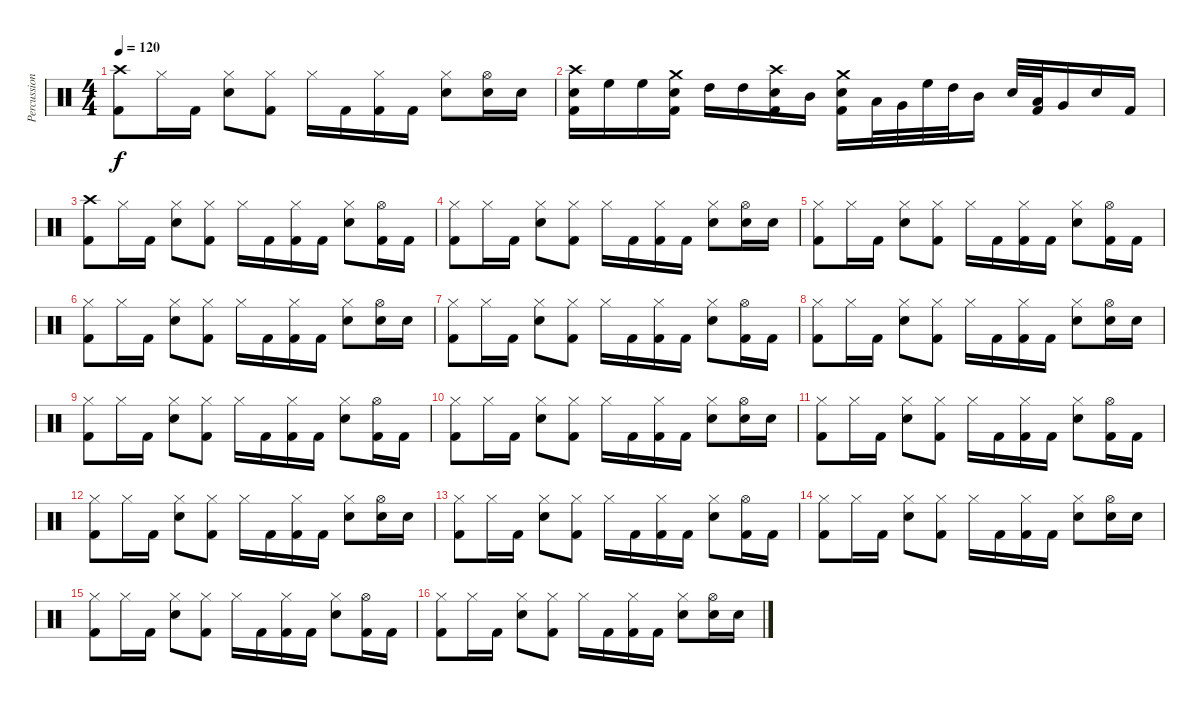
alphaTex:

\track ("Percussion" "Percussion") {instrument percussion}
\staff {score}
\articulation defaults
\ts (4 4)
\tempo 120
\clef neutral
\ks c
("Crash high (hit)" "Kick (hit) 2").8{dy f} "Hi-Hat (closed)".16 "Kick (hit) 2".16 ("Hi-Hat (closed)" "Snare (hit) 2").8 ("Hi-Hat (closed)" "Kick (hit) 2").8 "Hi-Hat (closed)".16 "Kick (hit) 2".16 ("Hi-Hat (closed)" "Kick (hit) 2").16 "Kick (hit) 2".16 ("Hi-Hat (closed)" "Snare (hit) 2").8 ("Hi-Hat (open)" "Snare (hit) 2").16 "Snare (hit) 2".16 |
("Crash high (hit)" "Electric Snare (hit)" "Kick (hit) 2").16 "High Floor Tom (hit)".16 "High Floor Tom (hit)".16 ("Crash medium (hit)" "Electric Snare (hit)" "Kick (hit) 2").16 "High Tom (hit)".16 "High Tom (hit)".16 ("Crash high (hit)" "Electric Snare (hit)" "Kick (hit) 2").16 "Mid Tom (hit)".16 ("Crash medium (hit)" "Electric Snare (hit)" "Kick (hit) 2").16 "Low Tom (hit)".32 "Very Low Tom (hit)".32 "High Floor Tom (hit)".32 "High Tom (hit)".32 "Mid Tom (hit)".16 "Electric Snare (hit)".32 ("Low Tom (hit)" "Kick (hit) 2").32 "Very Low Tom (hit)".16 "Electric Snare (hit)".16 "Kick (hit) 2".16 |
("Crash high (hit)" "Kick (hit) 2").8 "Hi-Hat (closed)".16 "Kick (hit) 2".16 ("Hi-Hat (closed)" "Snare (hit) 2").8 ("Hi-Hat (closed)" "Kick (hit) 2").8 "Hi-Hat (closed)".16 "Kick (hit) 2".16 ("Hi-Hat (closed)" "Kick (hit) 2").16 "Kick (hit) 2".16 ("Hi-Hat (closed)" "Snare (hit) 2").8 ("Hi-Hat (open)" "Kick (hit) 2").16 "Kick (hit) 2".16 |
("Hi-Hat (closed)" "Kick (hit) 2").8 "Hi-Hat (closed)".16 "Kick (hit) 2".16 ("Hi-Hat (closed)" "Snare (hit) 2").8 ("Hi-Hat (closed)" "Kick (hit) 2").8 "Hi-Hat (closed)".16 "Kick (hit) 2".16 ("Hi-Hat (closed)" "Kick (hit) 2").16 "Kick (hit) 2".16 ("Hi-Hat (closed)" "Snare (hit) 2").8 ("Hi-Hat (open)" "Snare (hit) 2").16 "Snare (hit) 2".16 |
("Hi-Hat (closed)" "Kick (hit) 2").8 "Hi-Hat (closed)".16 "Kick (hit) 2".16 ("Hi-Hat (closed)" "Snare (hit) 2").8 ("Hi-Hat (closed)" "Kick (hit) 2").8 "Hi-Hat (closed)".16 "Kick (hit) 2".16 ("Hi-Hat (closed)" "Kick (hit) 2").16 "Kick (hit) 2".16 ("Hi-Hat (closed)" "Snare (hit) 2").8 ("Hi-Hat (open)" "Kick (hit) 2").16 "Kick (hit) 2".16 |
("Hi-Hat (closed)" "Kick (hit) 2").8 "Hi-Hat (closed)".16 "Kick (hit) 2".16 ("Hi-Hat (closed)" "Snare (hit) 2").8 ("Hi-Hat (closed)" "Kick (hit) 2").8 "Hi-Hat (closed)".16 "Kick (hit) 2".16 ("Hi-Hat (closed)" "Kick (hit) 2").16 "Kick (hit) 2".16 ("Hi-Hat (closed)" "Snare (hit) 2").8 ("Hi-Hat (open)" "Snare (hit) 2").16 "Snare (hit) 2".16 |
("Hi-Hat (closed)" "Kick (hit) 2").8 "Hi-Hat (closed)".16 "Kick (hit) 2".16 ("Hi-Hat (closed)" "Snare (hit) 2").8 ("Hi-Hat (closed)" "Kick (hit) 2").8 "Hi-Hat (closed)".16 "Kick (hit) 2".16 ("Hi-Hat (closed)" "Kick (hit) 2").16 "Kick (hit) 2".16 ("Hi-Hat (closed)" "Snare (hit) 2").8 ("Hi-Hat (open)" "Kick (hit) 2").16 "Kick (hit) 2".16 |
("Hi-Hat (closed)" "Kick (hit) 2").8 "Hi-Hat (closed)".16 "Kick (hit) 2".16 ("Hi-Hat (closed)" "Snare (hit) 2").8 ("Hi-Hat (closed)" "Kick (hit) 2").8 "Hi-Hat (closed)".16 "Kick (hit) 2".16 ("Hi-Hat (closed)" "Kick (hit) 2").16 "Kick (hit) 2".16 ("Hi-Hat (closed)" "Snare (hit) 2").8 ("Hi-Hat (open)" "Snare (hit) 2").16 "Snare (hit) 2".16 |
("Hi-Hat (closed)" "Kick (hit) 2").8 "Hi-Hat (closed)".16 "Kick (hit) 2".16 ("Hi-Hat (closed)" "Snare (hit) 2").8 ("Hi-Hat (closed)" "Kick (hit) 2").8 "Hi-Hat (closed)".16 "Kick (hit) 2".16 ("Hi-Hat (closed)" "Kick (hit) 2").16 "Kick (hit) 2".16 ("Hi-Hat (closed)" "Snare (hit) 2").8 ("Hi-Hat (open)" "Kick (hit) 2").16 "Kick (hit) 2".16 |
("Hi-Hat (closed)" "Kick (hit) 2").8 "Hi-Hat (closed)".16 "Kick (hit) 2".16 ("Hi-Hat (closed)" "Snare (hit) 2").8 ("Hi-Hat (closed)" "Kick (hit) 2").8 "Hi-Hat (closed)".16 "Kick (hit) 2".16 ("Hi-Hat (closed)" "Kick (hit) 2").16 "Kick (hit) 2".16 ("Hi-Hat (closed)" "Snare (hit) 2").8 ("Hi-Hat (open)" "Snare (hit) 2").16 "Snare (hit) 2".16 |
("Hi-Hat (closed)" "Kick (hit) 2").8 "Hi-Hat (closed)".16 "Kick (hit) 2".16 ("Hi-Hat (closed)" "Snare (hit) 2").8 ("Hi-Hat (closed)" "Kick (hit) 2").8 "Hi-Hat (closed)".16 "Kick (hit) 2".16 ("Hi-Hat (closed)" "Kick (hit) 2").16 "Kick (hit) 2".16 ("Hi-Hat (closed)" "Snare (hit) 2").8 ("Hi-Hat (open)" "Kick (hit) 2").16 "Kick (hit) 2".16 |
("Hi-Hat (closed)" "Kick (hit) 2").8 "Hi-Hat (closed)".16 "Kick (hit) 2".16 ("Hi-Hat (closed)" "Snare (hit) 2").8 ("Hi-Hat (closed)" "Kick (hit) 2").8 "Hi-Hat (closed)".16 "Kick (hit) 2".16 ("Hi-Hat (closed)" "Kick (hit) 2").16 "Kick (hit) 2".16 ("Hi-Hat (closed)" "Snare (hit) 2").8 ("Hi-Hat (open)" "Snare (hit) 2").16 "Snare (hit) 2".16 |
("Hi-Hat (closed)" "Kick (hit) 2").8 "Hi-Hat (closed)".16 "Kick (hit) 2".16 ("Hi-Hat (closed)" "Snare (hit) 2").8 ("Hi-Hat (closed)" "Kick (hit) 2").8 "Hi-Hat (closed)".16 "Kick (hit) 2".16 ("Hi-Hat (closed)" "Kick (hit) 2").16 "Kick (hit) 2".16 ("Hi-Hat (closed)" "Snare (hit) 2").8 ("Hi-Hat (open)" "Kick (hit) 2").16 "Kick (hit) 2".16 |
("Hi-Hat (closed)" "Kick (hit) 2").8 "Hi-Hat (closed)".16 "Kick (hit) 2".16 ("Hi-Hat (closed)" "Snare (hit) 2").8 ("Hi-Hat (closed)" "Kick (hit) 2").8 "Hi-Hat (closed)".16 "Kick (hit) 2".16 ("Hi-Hat (closed)" "Kick (hit) 2").16 "Kick (hit) 2".16 ("Hi-Hat (closed)" "Snare (hit) 2").8 ("Hi-Hat (open)" "Snare (hit) 2").16 "Snare (hit) 2".16 |
("Hi-Hat (closed)" "Kick (hit) 2").8 "Hi-Hat (closed)".16 "Kick (hit) 2".16 ("Hi-Hat (closed)" "Snare (hit) 2").8 ("Hi-Hat (closed)" "Kick (hit) 2").8 "Hi-Hat (closed)".16 "Kick (hit) 2".16 ("Hi-Hat (closed)" "Kick (hit) 2").16 "Kick (hit) 2".16 ("Hi-Hat (closed)" "Snare (hit) 2").8 ("Hi-Hat (open)" "Kick (hit) 2").16 "Kick (hit) 2".16 |
("Hi-Hat (closed)" "Kick (hit) 2").8 "Hi-Hat (closed)".16 "Kick (hit) 2".16 ("Hi-Hat (closed)" "Snare (hit) 2").8 ("Hi-Hat (closed)" "Kick (hit) 2").8 "Hi-Hat (closed)".16 "Kick (hit) 2".16 ("Hi-Hat (closed)" "Kick (hit) 2").16 "Kick (hit) 2".16 ("Hi-Hat (closed)" "Snare (hit) 2").8 ("Hi-Hat (open)" "Snare (hit) 2").16 "Snare (hit) 2".16
